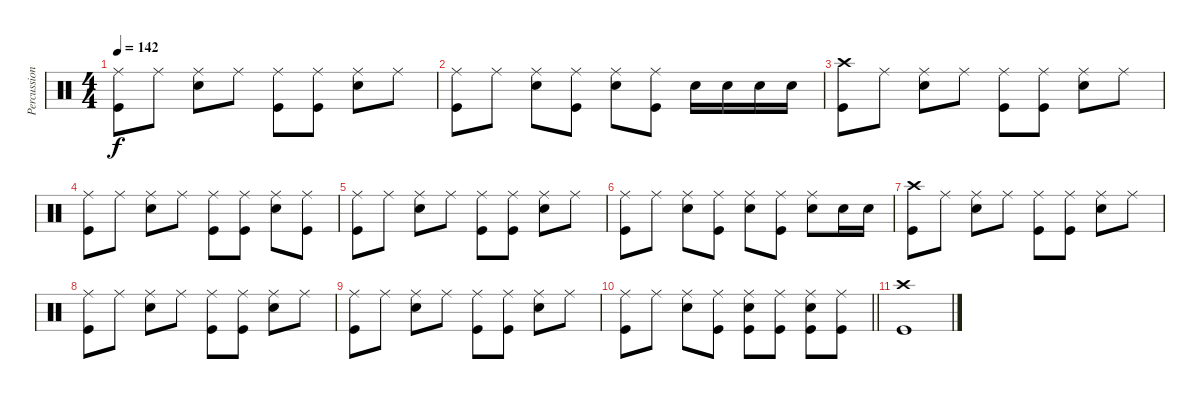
\track ("Percussion" "Percussion") {instrument percussion}
\staff {score}
\articulation defaults
\ts (4 4)
\tempo 142
\clef neutral
\ks c
("Ride (middle)" "Kick (hit)").8{dy f} "Ride (middle)".8 ("Ride (middle)" "Snare (hit) 2").8 "Ride (middle)".8 ("Ride (middle)" "Kick (hit)").8 ("Ride (middle)" "Kick (hit)").8 ("Ride (middle)" "Snare (hit) 2").8 "Ride (middle)".8 |
("Ride (middle)" "Kick (hit)").8 "Ride (middle)".8 ("Ride (middle)" "Snare (hit) 2").8 ("Ride (middle)" "Kick (hit)").8 ("Ride (middle)" "Snare (hit) 2").8 ("Ride (middle)" "Kick (hit)").8 "Snare (hit) 2".16 "Snare (hit) 2".16 "Snare (hit) 2".16 "Snare (hit) 2".16 |
("Crash high (hit)" "Kick (hit)").8 "Ride (middle)".8 ("Ride (middle)" "Snare (hit) 2").8 "Ride (middle)".8 ("Ride (middle)" "Kick (hit)").8 ("Ride (middle)" "Kick (hit)").8 ("Ride (middle)" "Snare (hit) 2").8 "Ride (middle)".8 |
("Ride (middle)" "Kick (hit)").8 "Ride (middle)".8 ("Ride (middle)" "Snare (hit) 2").8 "Ride (middle)".8 ("Ride (middle)" "Kick (hit)").8 ("Ride (middle)" "Kick (hit)").8 ("Ride (middle)" "Snare (hit) 2").8 ("Ride (middle)" "Kick (hit)").8 |
("Ride (middle)" "Kick (hit)").8 "Ride (middle)".8 ("Ride (middle)" "Snare (hit) 2").8 "Ride (middle)".8 ("Ride (middle)" "Kick (hit)").8 ("Ride (middle)" "Kick (hit)").8 ("Ride (middle)" "Snare (hit) 2").8 "Ride (middle)".8 |
("Ride (middle)" "Kick (hit)").8 "Ride (middle)".8 ("Ride (middle)" "Snare (hit) 2").8 ("Ride (middle)" "Kick (hit)").8 ("Ride (middle)" "Snare (hit) 2").8 ("Ride (middle)" "Kick (hit)").8 ("Ride (middle)" "Snare (hit) 2").8 "Snare (hit) 2".16 "Snare (hit) 2".16 |
("Crash high (hit)" "Kick (hit)").8 "Ride (middle)".8 ("Ride (middle)" "Snare (hit) 2").8 "Ride (middle)".8 ("Ride (middle)" "Kick (hit)").8 ("Ride (middle)" "Kick (hit)").8 ("Ride (middle)" "Snare (hit) 2").8 "Ride (middle)".8 |
("Ride (middle)" "Kick (hit)").8 "Ride (middle)".8 ("Ride (middle)" "Snare (hit) 2").8 "Ride (middle)".8 ("Ride (middle)" "Kick (hit)").8 ("Ride (middle)" "Kick (hit)").8 ("Ride (middle)" "Snare (hit) 2").8 "Ride (middle)".8 |
("Ride (middle)" "Kick (hit)").8 "Ride (middle)".8 ("Ride (middle)" "Snare (hit) 2").8 "Ride (middle)".8 ("Ride (middle)" "Kick (hit)").8 ("Ride (middle)" "Kick (hit)").8 ("Ride (middle)" "Snare (hit) 2").8 "Ride (middle)".8 |
\barLineRight lightlight
("Ride (middle)" "Kick (hit)").8 "Ride (middle)".8 ("Ride (middle)" "Snare (hit) 2").8 ("Ride (middle)" "Kick (hit)").8 ("Ride (middle)" "Snare (hit) 2" "Kick (hit)").8 ("Ride (middle)" "Kick (hit)").8 ("Ride (middle)" "Snare (hit) 2" "Kick (hit)").8 ("Ride (middle)" "Kick (hit)").8 |
("Crash high (hit)" "Kick (hit)").1
